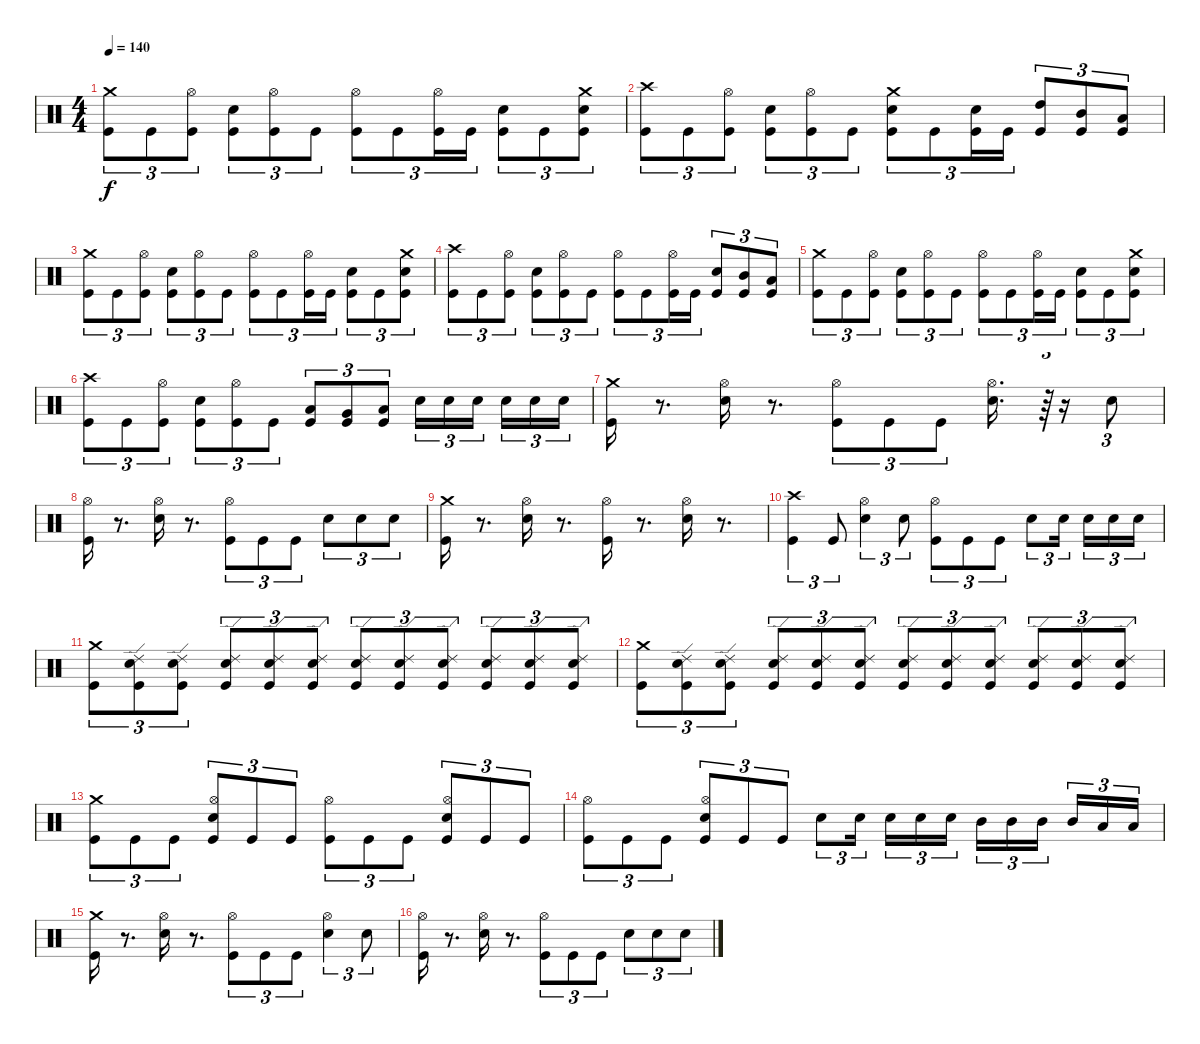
\track "" {instrument percussion}
\staff {score}
\articulation defaults
\ts (4 4)
\tempo 140
\clef neutral
\ks c
("Crash medium (hit)" "Kick (hit)").8{tu (3 2) dy f} "Kick (hit)".8{tu (3 2)} ("Kick (hit)" "Hi-Hat (open)").8{tu (3 2)} ("Kick (hit)" "Snare (hit) 2").8{tu (3 2)} ("Kick (hit)" "Hi-Hat (open)").8{tu (3 2)} "Kick (hit)".8{tu (3 2)} ("Hi-Hat (open)" "Kick (hit)").8{tu (3 2)} "Kick (hit)".8{tu (3 2)} ("Hi-Hat (open)" "Kick (hit)").16{tu (3 2)} "Kick (hit)".16{tu (3 2)} ("Kick (hit)" "Snare (hit) 2").8{tu (3 2)} "Kick (hit)".8{tu (3 2)} ("Kick (hit)" "Snare (hit) 2" "Crash medium (hit)").8{tu (3 2)} |
("Crash high (hit)" "Kick (hit)").8{tu (3 2)} "Kick (hit)".8{tu (3 2)} ("Kick (hit)" "Hi-Hat (open)").8{tu (3 2)} ("Kick (hit)" "Snare (hit) 2").8{tu (3 2)} ("Kick (hit)" "Hi-Hat (open)").8{tu (3 2)} "Kick (hit)".8{tu (3 2)} ("Snare (hit) 2" "Crash medium (hit)" "Kick (hit)").8{tu (3 2)} "Kick (hit)".8{tu (3 2)} ("Snare (hit) 2" "Kick (hit)").16{tu (3 2)} "Kick (hit)".16{tu (3 2)} ("Kick (hit)" "High Tom (hit)").8{tu (3 2)} ("Kick (hit)" "Mid Tom (hit)").8{tu (3 2)} ("Kick (hit)" "Low Tom (hit)").8{tu (3 2)} |
("Crash medium (hit)" "Kick (hit)").8{tu (3 2)} "Kick (hit)".8{tu (3 2)} ("Hi-Hat (open)" "Kick (hit)").8{tu (3 2)} ("Snare (hit) 2" "Kick (hit)").8{tu (3 2)} ("Hi-Hat (open)" "Kick (hit)").8{tu (3 2)} "Kick (hit)".8{tu (3 2)} ("Hi-Hat (open)" "Kick (hit)").8{tu (3 2)} "Kick (hit)".8{tu (3 2)} ("Hi-Hat (open)" "Kick (hit)").16{tu (3 2)} "Kick (hit)".16{tu (3 2)} ("Snare (hit) 2" "Kick (hit)").8{tu (3 2)} "Kick (hit)".8{tu (3 2)} ("Snare (hit) 2" "Crash medium (hit)" "Kick (hit)").8{tu (3 2)} |
("Crash high (hit)" "Kick (hit)").8{tu (3 2)} "Kick (hit)".8{tu (3 2)} ("Kick (hit)" "Hi-Hat (open)").8{tu (3 2)} ("Kick (hit)" "Snare (hit) 2").8{tu (3 2)} ("Kick (hit)" "Hi-Hat (open)").8{tu (3 2)} "Kick (hit)".8{tu (3 2)} ("Hi-Hat (open)" "Kick (hit)").8{tu (3 2)} "Kick (hit)".8{tu (3 2)} ("Hi-Hat (open)" "Kick (hit)").16{tu (3 2)} "Kick (hit)".16{tu (3 2)} ("Kick (hit)" "Snare (hit) 2").8{tu (3 2)} ("Kick (hit)" "Mid Tom (hit)").8{tu (3 2)} ("Kick (hit)" "Low Tom (hit)").8{tu (3 2)} |
("Crash medium (hit)" "Kick (hit)").8{tu (3 2)} "Kick (hit)".8{tu (3 2)} ("Kick (hit)" "Hi-Hat (open)").8{tu (3 2)} ("Kick (hit)" "Snare (hit) 2").8{tu (3 2)} ("Kick (hit)" "Hi-Hat (open)").8{tu (3 2)} "Kick (hit)".8{tu (3 2)} ("Hi-Hat (open)" "Kick (hit)").8{tu (3 2)} "Kick (hit)".8{tu (3 2)} ("Hi-Hat (open)" "Kick (hit)").16{tu (3 2)} "Kick (hit)".16{tu (3 2)} ("Kick (hit)" "Snare (hit) 2").8{tu (3 2)} "Kick (hit)".8{tu (3 2)} ("Kick (hit)" "Snare (hit) 2" "Crash medium (hit)").8{tu (3 2)} |
("Crash high (hit)" "Kick (hit)").8{tu (3 2)} "Kick (hit)".8{tu (3 2)} ("Kick (hit)" "Hi-Hat (open)").8{tu (3 2)} ("Kick (hit)" "Snare (hit) 2").8{tu (3 2)} ("Kick (hit)" "Hi-Hat (open)").8{tu (3 2)} "Kick (hit)".8{tu (3 2)} ("Low Tom (hit)" "Kick (hit)").8{tu (3 2)} ("Very Low Tom (hit)" "Kick (hit)").8{tu (3 2)} ("Low Floor Tom (hit)" "Kick (hit)").8{tu (3 2)} "Snare (hit) 2".16{tu (3 2)} "Snare (hit) 2".16{tu (3 2)} "Snare (hit) 2".16{tu (3 2) beam splitsecondary} "Snare (hit) 2".16{tu (3 2)} "Snare (hit) 2".16{tu (3 2)} "Snare (hit) 2".16{tu (3 2)} |
("Crash medium (hit)" "Kick (hit)").16 r.8{d} ("Hi-Hat (open)" "Snare (hit) 2").16 r.8{d} ("Hi-Hat (open)" "Kick (hit)").8{tu (3 2)} "Kick (hit)".8{tu (3 2)} "Kick (hit)".8{tu (3 2)} ("Hi-Hat (open)" "Snare (hit) 2").16{d} r.64{tu (3 2)} r.16 "Snare (hit) 2".8{tu (3 2)} |
("Hi-Hat (open)" "Kick (hit)").16 r.8{d} ("Hi-Hat (open)" "Snare (hit) 2").16 r.8{d} ("Hi-Hat (open)" "Kick (hit)").8{tu (3 2)} "Kick (hit)".8{tu (3 2)} "Kick (hit)".8{tu (3 2)} "Snare (hit) 2".8{tu (3 2)} "Snare (hit) 2".8{tu (3 2)} "Snare (hit) 2".8{tu (3 2)} |
("Crash medium (hit)" "Kick (hit)").16 r.8{d} ("Hi-Hat (open)" "Snare (hit) 2").16 r.8{d} ("Hi-Hat (open)" "Kick (hit)").16 r.8{d} ("Hi-Hat (open)" "Snare (hit) 2").16 r.8{d} |
("Crash high (hit)" "Kick (hit)").4{tu (3 2)} "Kick (hit)".8{tu (3 2)} ("Hi-Hat (open)" "Snare (hit) 2").4{tu (3 2)} "Snare (hit) 2".8{tu (3 2)} ("Hi-Hat (open)" "Kick (hit)").8{tu (3 2)} "Kick (hit)".8{tu (3 2)} "Kick (hit)".8{tu (3 2)} "Snare (hit) 2".8{tu (3 2)} "Snare (hit) 2".16{tu (3 2) beam splitsecondary} "Snare (hit) 2".16{tu (3 2)} "Snare (hit) 2".16{tu (3 2)} "Snare (hit) 2".16{tu (3 2)} |
("Kick (hit)" "Crash medium (hit)").8{tu (3 2)} ("Kick (hit)" "Ride (edge) 2" "Snare (hit) 2").8{tu (3 2)} ("Ride (edge) 2" "Kick (hit)" "Snare (hit) 2").8{tu (3 2)} ("Ride (edge) 2" "Kick (hit)" "Snare (hit) 2").8{tu (3 2)} ("Snare (hit) 2" "Kick (hit)" "Ride (edge) 2").8{tu (3 2)} ("Snare (hit) 2" "Kick (hit)" "Ride (edge) 2").8{tu (3 2)} ("Snare (hit) 2" "Ride (edge) 2" "Kick (hit)").8{tu (3 2)} ("Snare (hit) 2" "Kick (hit)" "Ride (edge) 2").8{tu (3 2)} ("Snare (hit) 2" "Ride (edge) 2" "Kick (hit)").8{tu (3 2)} ("Snare (hit) 2" "Kick (hit)" "Ride (edge) 2").8{tu (3 2)} ("Snare (hit) 2" "Ride (edge) 2" "Kick (hit)").8{tu (3 2)} ("Snare (hit) 2" "Ride (edge) 2" "Kick (hit)").8{tu (3 2)} |
("Kick (hit)" "Crash medium (hit)").8{tu (3 2)} ("Kick (hit)" "Ride (edge) 2" "Snare (hit) 2").8{tu (3 2)} ("Kick (hit)" "Ride (edge) 2" "Snare (hit) 2").8{tu (3 2)} ("Kick (hit)" "Ride (edge) 2" "Snare (hit) 2").8{tu (3 2)} ("Kick (hit)" "Snare (hit) 2" "Ride (edge) 2").8{tu (3 2)} ("Kick (hit)" "Snare (hit) 2" "Ride (edge) 2").8{tu (3 2)} ("Kick (hit)" "Snare (hit) 2" "Ride (edge) 2").8{tu (3 2)} ("Kick (hit)" "Snare (hit) 2" "Ride (edge) 2").8{tu (3 2)} ("Kick (hit)" "Snare (hit) 2" "Ride (edge) 2").8{tu (3 2)} ("Kick (hit)" "Snare (hit) 2" "Ride (edge) 2").8{tu (3 2)} ("Kick (hit)" "Snare (hit) 2" "Ride (edge) 2").8{tu (3 2)} ("Kick (hit)" "Snare (hit) 2" "Ride (edge) 2").8{tu (3 2)} |
("Crash medium (hit)" "Kick (hit)").8{tu (3 2)} "Kick (hit)".8{tu (3 2)} "Kick (hit)".8{tu (3 2)} ("Hi-Hat (open)" "Kick (hit)" "Snare (hit) 2").8{tu (3 2)} "Kick (hit)".8{tu (3 2)} "Kick (hit)".8{tu (3 2)} ("Hi-Hat (open)" "Kick (hit)").8{tu (3 2)} "Kick (hit)".8{tu (3 2)} "Kick (hit)".8{tu (3 2)} ("Hi-Hat (open)" "Snare (hit) 2" "Kick (hit)").8{tu (3 2)} "Kick (hit)".8{tu (3 2)} "Kick (hit)".8{tu (3 2)} |
("Hi-Hat (open)" "Kick (hit)").8{tu (3 2)} "Kick (hit)".8{tu (3 2)} "Kick (hit)".8{tu (3 2)} ("Hi-Hat (open)" "Kick (hit)" "Snare (hit) 2").8{tu (3 2)} "Kick (hit)".8{tu (3 2)} "Kick (hit)".8{tu (3 2)} "Snare (hit) 2".8{tu (3 2)} "Snare (hit) 2".16{tu (3 2) beam splitsecondary} "Snare (hit) 2".16{tu (3 2)} "Snare (hit) 2".16{tu (3 2)} "Snare (hit) 2".16{tu (3 2)} "Mid Tom (hit)".16{tu (3 2)} "Mid Tom (hit)".16{tu (3 2)} "Mid Tom (hit)".16{tu (3 2) beam splitsecondary} "Mid Tom (hit)".16{tu (3 2)} "Low Tom (hit)".16{tu (3 2)} "Low Tom (hit)".16{tu (3 2)} |
("Crash medium (hit)" "Kick (hit)").16 r.8{d} ("Hi-Hat (open)" "Snare (hit) 2").16 r.8{d} ("Hi-Hat (open)" "Kick (hit)").8{tu (3 2)} "Kick (hit)".8{tu (3 2)} "Kick (hit)".8{tu (3 2)} ("Hi-Hat (open)" "Snare (hit) 2").4{tu (3 2)} "Snare (hit) 2".8{tu (3 2)} |
("Hi-Hat (open)" "Kick (hit)").16 r.8{d} ("Hi-Hat (open)" "Snare (hit) 2").16 r.8{d} ("Hi-Hat (open)" "Kick (hit)").8{tu (3 2)} "Kick (hit)".8{tu (3 2)} "Kick (hit)".8{tu (3 2)} "Snare (hit) 2".8{tu (3 2)} "Snare (hit) 2".8{tu (3 2)} "Snare (hit) 2".8{tu (3 2)}
